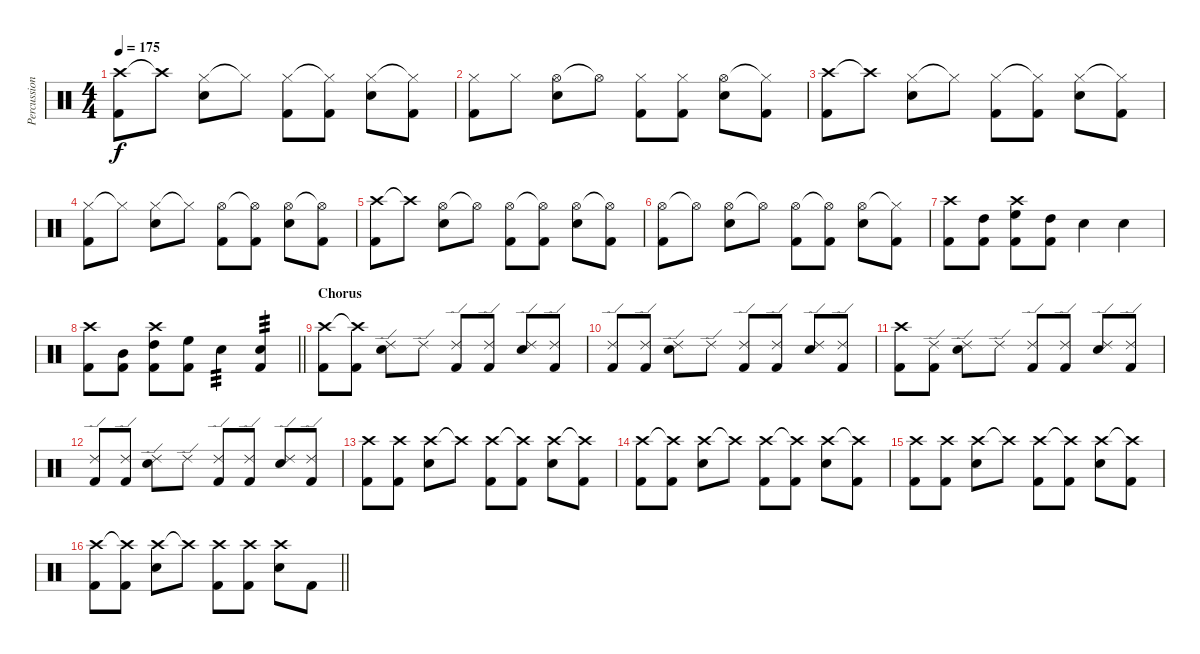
\track ("Percussion" "Percussion") {instrument percussion}
\staff {score}
\articulation defaults
\ts (4 4)
\tempo 175
\clef neutral
\ks c
("Crash high (hit)" "Kick (hit) 2").8{dy f} "Crash high (hit)"{t}.8 ("Hi-Hat (closed)" "Snare (hit) 2").8 "Hi-Hat (closed)"{t}.8 ("Hi-Hat (closed)" "Kick (hit) 2").8 ("Hi-Hat (closed)"{t} "Kick (hit) 2").8 ("Hi-Hat (closed)" "Snare (hit) 2").8 ("Hi-Hat (closed)"{t} "Kick (hit) 2").8 |
("Hi-Hat (closed)" "Kick (hit) 2").8 "Hi-Hat (closed)".8 ("Hi-Hat (open)" "Snare (hit) 2").8 "Hi-Hat (open)"{t}.8 ("Hi-Hat (closed)" "Kick (hit) 2").8 ("Hi-Hat (closed)" "Kick (hit) 2").8 ("Hi-Hat (open)" "Snare (hit) 2").8 ("Hi-Hat (closed)"{t} "Kick (hit) 2").8 |
("Crash high (hit)" "Kick (hit) 2").8 "Crash high (hit)"{t}.8 ("Hi-Hat (closed)" "Snare (hit) 2").8 "Hi-Hat (closed)"{t}.8 ("Hi-Hat (closed)" "Kick (hit) 2").8 ("Hi-Hat (closed)"{t} "Kick (hit) 2").8 ("Hi-Hat (closed)" "Snare (hit) 2").8 ("Hi-Hat (closed)"{t} "Kick (hit) 2").8 |
("Hi-Hat (closed)" "Kick (hit) 2").8 "Hi-Hat (closed)"{t}.8 ("Hi-Hat (closed)" "Snare (hit) 2").8 "Hi-Hat (closed)"{t}.8 ("Hi-Hat (open)" "Kick (hit) 2").8 ("Hi-Hat (open)"{t} "Kick (hit) 2").8 ("Hi-Hat (open)" "Snare (hit) 2").8 ("Hi-Hat (open)"{t} "Kick (hit) 2").8 |
("Crash high (hit)" "Kick (hit) 2").8 "Crash high (hit)"{t}.8 ("Hi-Hat (open)" "Snare (hit) 2").8 "Hi-Hat (open)"{t}.8 ("Hi-Hat (open)" "Kick (hit) 2").8 ("Hi-Hat (open)"{t} "Kick (hit) 2").8 ("Hi-Hat (open)" "Snare (hit) 2").8 ("Hi-Hat (open)"{t} "Kick (hit) 2").8 |
("Hi-Hat (open)" "Kick (hit) 2").8 "Hi-Hat (open)"{t}.8 ("Hi-Hat (open)" "Snare (hit) 2").8 "Hi-Hat (open)"{t}.8 ("Hi-Hat (open)" "Kick (hit) 2").8 ("Hi-Hat (open)"{t} "Kick (hit) 2").8 ("Hi-Hat (open)" "Snare (hit) 2").8 ("Hi-Hat (closed)"{t} "Kick (hit) 2").8 |
("Crash high (hit)" "Kick (hit) 2").8 ("High Tom (hit)" "Kick (hit) 2").8 ("Crash high (hit)" "High Floor Tom (hit)" "Kick (hit) 2").8 ("High Tom (hit)" "Kick (hit) 2").8 "Snare (hit) 2".4 "Snare (hit) 2".4 |
\barLineRight lightlight
("Crash high (hit)" "Kick (hit) 2").8 ("Mid Tom (hit)" "Kick (hit) 2").8 ("Crash high (hit)" "High Tom (hit)" "Kick (hit) 2").8 ("High Floor Tom (hit)" "Kick (hit) 2").8 "Snare (hit) 2".4{tp 3} ("Snare (hit) 2" "Kick (hit) 2").4{tp 3} |
\section ("" "Chorus")
("Crash high (hit)" "Kick (hit) 2").8 ("Crash high (hit)"{t} "Kick (hit) 2").8 ("Ride (edge) 2" "Snare (hit) 2").8 "Ride (edge) 2".8 ("Ride (edge) 2" "Kick (hit) 2").8 ("Ride (edge) 2" "Kick (hit) 2").8 ("Ride (edge) 2" "Snare (hit) 2").8 ("Ride (edge) 2" "Kick (hit) 2").8 |
("Ride (edge) 2" "Kick (hit) 2").8 ("Ride (edge) 2" "Kick (hit) 2").8 ("Ride (edge) 2" "Snare (hit) 2").8 "Ride (edge) 2".8 ("Ride (edge) 2" "Kick (hit) 2").8 ("Ride (edge) 2" "Kick (hit) 2").8 ("Ride (edge) 2" "Snare (hit) 2").8 ("Ride (edge) 2" "Kick (hit) 2").8 |
("Crash high (hit)" "Kick (hit) 2").8 ("Ride (edge) 2" "Kick (hit) 2").8 ("Ride (edge) 2" "Snare (hit) 2").8 "Ride (edge) 2".8 ("Ride (edge) 2" "Kick (hit) 2").8 ("Ride (edge) 2" "Kick (hit) 2").8 ("Ride (edge) 2" "Snare (hit) 2").8 ("Ride (edge) 2" "Kick (hit) 2").8 |
("Ride (edge) 2" "Kick (hit) 2").8 ("Ride (edge) 2" "Kick (hit) 2").8 ("Ride (edge) 2" "Snare (hit) 2").8 "Ride (edge) 2".8 ("Ride (edge) 2" "Kick (hit) 2").8 ("Ride (edge) 2" "Kick (hit) 2").8 ("Ride (edge) 2" "Snare (hit) 2").8 ("Ride (edge) 2" "Kick (hit) 2").8 |
("Crash high (hit)" "Kick (hit) 2").8 ("Crash high (hit)" "Kick (hit) 2").8 ("Crash high (hit)" "Snare (hit) 2").8 "Crash high (hit)"{t}.8 ("Crash high (hit)" "Kick (hit) 2").8 ("Crash high (hit)"{t} "Kick (hit) 2").8 ("Crash high (hit)" "Snare (hit) 2").8 ("Crash high (hit)"{t} "Kick (hit) 2").8 |
("Crash high (hit)" "Kick (hit) 2").8 ("Crash high (hit)"{t} "Kick (hit) 2").8 ("Crash high (hit)" "Snare (hit) 2").8 "Crash high (hit)"{t}.8 ("Crash high (hit)" "Kick (hit) 2").8 ("Crash high (hit)"{t} "Kick (hit) 2").8 ("Crash high (hit)" "Snare (hit) 2").8 ("Crash high (hit)"{t} "Kick (hit) 2").8 |
("Crash high (hit)" "Kick (hit) 2").8 ("Crash high (hit)" "Kick (hit) 2").8 ("Crash high (hit)" "Snare (hit) 2").8 "Crash high (hit)"{t}.8 ("Crash high (hit)" "Kick (hit) 2").8 ("Crash high (hit)"{t} "Kick (hit) 2").8 ("Crash high (hit)" "Snare (hit) 2").8 ("Crash high (hit)"{t} "Kick (hit) 2").8 |
\barLineRight lightlight
("Crash high (hit)" "Kick (hit) 2").8 ("Crash high (hit)"{t} "Kick (hit) 2").8 ("Crash high (hit)" "Snare (hit) 2").8 "Crash high (hit)"{t}.8 ("Crash high (hit)" "Kick (hit) 2").8 ("Crash high (hit)" "Kick (hit) 2").8 ("Crash high (hit)" "Snare (hit) 2").8 "Kick (hit) 2".8
